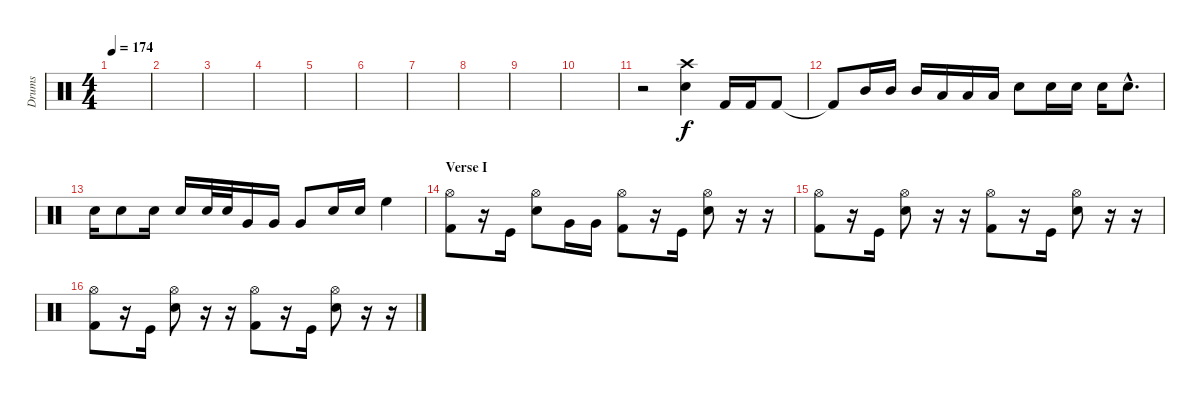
\track ("Drums" "Drums") {instrument percussion}
\staff {score}
\articulation defaults
\ts (4 4)
\tempo 174
\clef neutral
\ks c
|
|
|
|
|
|
|
|
|
|
r.2 ("Snare (hit) 2" "Crash high (hit)").4 "Kick (hit) 2".16 "Kick (hit) 2".16 "Kick (hit) 2".8 |
"Kick (hit) 2"{t}.8 "Mid Tom (hit)".16 "Mid Tom (hit)".16 "Mid Tom (hit)".16 "Low Tom (hit)".16 "Low Tom (hit)".16 "Low Tom (hit)".16 "Snare (hit) 2".8 "Snare (hit) 2".16 "Snare (hit) 2".16 "Snare (hit) 2".16 "Snare (hit) 2"{hac}.8{d} |
"Snare (hit) 2".16 "Snare (hit) 2".8 "Snare (hit) 2".16 "Snare (hit) 2".16 "Snare (hit) 2".32 "Snare (hit) 2".32 "Very Low Tom (hit)".16 "Very Low Tom (hit)".16 "Very Low Tom (hit)".8 "Snare (hit) 2".16 "Snare (hit) 2".16 "High Floor Tom (hit)".4 |
\section ("" "Verse I")
("Hi-Hat (open)" "Kick (hit) 2").8 r.16 "Kick (hit)".16 ("Hi-Hat (open)" "Snare (hit) 2").8 "Very Low Tom (hit)".16 "Very Low Tom (hit)".16 ("Hi-Hat (open)" "Kick (hit) 2").8 r.16 "Kick (hit)".16 ("Hi-Hat (open)" "Snare (hit) 2").8 r.16 r.16 |
("Hi-Hat (open)" "Kick (hit) 2").8 r.16 "Kick (hit)".16 ("Hi-Hat (open)" "Snare (hit) 2").8 r.16 r.16 ("Hi-Hat (open)" "Kick (hit) 2").8 r.16 "Kick (hit)".16 ("Hi-Hat (open)" "Snare (hit) 2").8 r.16 r.16 |
("Hi-Hat (open)" "Kick (hit) 2").8 r.16 "Kick (hit)".16 ("Hi-Hat (open)" "Snare (hit) 2").8 r.16 r.16 ("Hi-Hat (open)" "Kick (hit) 2").8 r.16 "Kick (hit)".16 ("Hi-Hat (open)" "Snare (hit) 2").8 r.16 r.16
